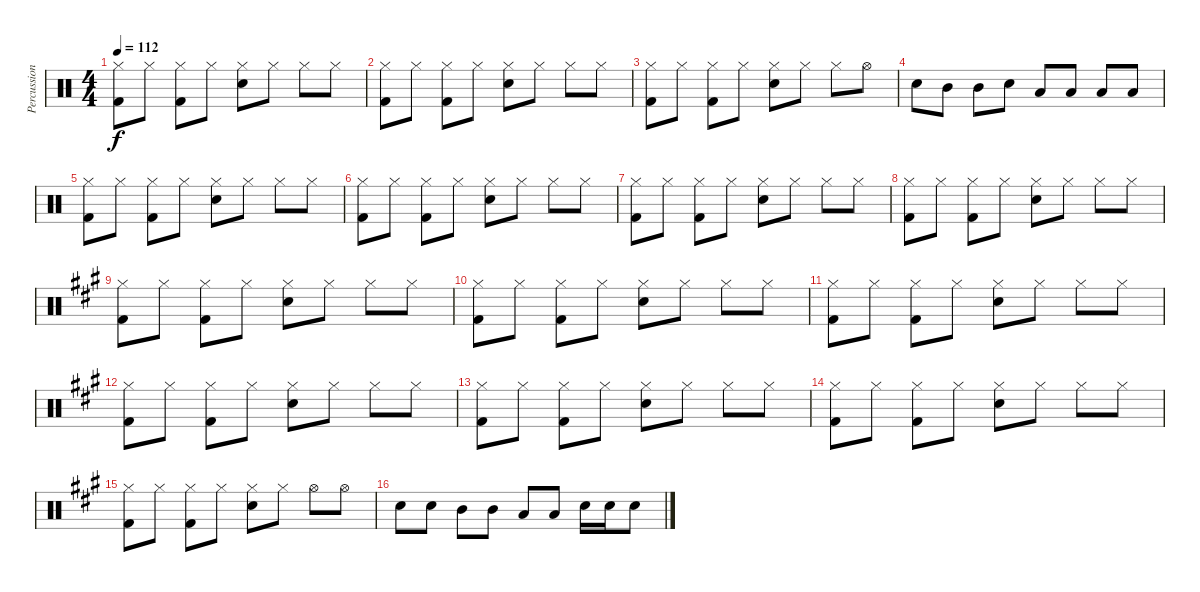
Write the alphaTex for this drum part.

\track ("Percussion" "Percussion") {instrument percussion}
\staff {score}
\articulation defaults
\ts (4 4)
\tempo 112
\clef neutral
\ks c
("Hi-Hat (closed)" "Kick (hit) 2").8{dy f} "Hi-Hat (closed)".8 ("Hi-Hat (closed)" "Kick (hit) 2").8 "Hi-Hat (closed)".8 ("Hi-Hat (closed)" "Snare (hit) 2").8 "Hi-Hat (closed)".8 "Hi-Hat (closed)".8 "Hi-Hat (closed)".8 |
("Hi-Hat (closed)" "Kick (hit) 2").8 "Hi-Hat (closed)".8 ("Hi-Hat (closed)" "Kick (hit) 2").8 "Hi-Hat (closed)".8 ("Hi-Hat (closed)" "Snare (hit) 2").8 "Hi-Hat (closed)".8 "Hi-Hat (closed)".8 "Hi-Hat (closed)".8 |
("Hi-Hat (closed)" "Kick (hit) 2").8 "Hi-Hat (closed)".8 ("Hi-Hat (closed)" "Kick (hit) 2").8 "Hi-Hat (closed)".8 ("Hi-Hat (closed)" "Snare (hit) 2").8 "Hi-Hat (closed)".8 "Hi-Hat (closed)".8 "Hi-Hat (open)".8 |
"Snare (hit) 2".8 "Mid Tom (hit)".8 "Mid Tom (hit)".8 "Snare (hit) 2".8 "Low Floor Tom (hit)".8 "Low Floor Tom (hit)".8 "Low Floor Tom (hit)".8 "Low Floor Tom (hit)".8 |
("Hi-Hat (closed)" "Kick (hit) 2").8 "Hi-Hat (closed)".8 ("Hi-Hat (closed)" "Kick (hit) 2").8 "Hi-Hat (closed)".8 ("Hi-Hat (closed)" "Snare (hit) 2").8 "Hi-Hat (closed)".8 "Hi-Hat (closed)".8 "Hi-Hat (closed)".8 |
("Hi-Hat (closed)" "Kick (hit) 2").8 "Hi-Hat (closed)".8 ("Hi-Hat (closed)" "Kick (hit) 2").8 "Hi-Hat (closed)".8 ("Hi-Hat (closed)" "Snare (hit) 2").8 "Hi-Hat (closed)".8 "Hi-Hat (closed)".8 "Hi-Hat (closed)".8 |
("Hi-Hat (closed)" "Kick (hit) 2").8 "Hi-Hat (closed)".8 ("Hi-Hat (closed)" "Kick (hit) 2").8 "Hi-Hat (closed)".8 ("Hi-Hat (closed)" "Snare (hit) 2").8 "Hi-Hat (closed)".8 "Hi-Hat (closed)".8 "Hi-Hat (closed)".8 |
("Hi-Hat (closed)" "Kick (hit) 2").8 "Hi-Hat (closed)".8 ("Hi-Hat (closed)" "Kick (hit) 2").8 "Hi-Hat (closed)".8 ("Hi-Hat (closed)" "Snare (hit) 2").8 "Hi-Hat (closed)".8 "Hi-Hat (closed)".8 "Hi-Hat (closed)".8 |
\ks a
("Hi-Hat (closed)" "Kick (hit) 2").8 "Hi-Hat (closed)".8 ("Hi-Hat (closed)" "Kick (hit) 2").8 "Hi-Hat (closed)".8 ("Hi-Hat (closed)" "Snare (hit) 2").8 "Hi-Hat (closed)".8 "Hi-Hat (closed)".8 "Hi-Hat (closed)".8 |
("Hi-Hat (closed)" "Kick (hit) 2").8 "Hi-Hat (closed)".8 ("Hi-Hat (closed)" "Kick (hit) 2").8 "Hi-Hat (closed)".8 ("Hi-Hat (closed)" "Snare (hit) 2").8 "Hi-Hat (closed)".8 "Hi-Hat (closed)".8 "Hi-Hat (closed)".8 |
("Hi-Hat (closed)" "Kick (hit) 2").8 "Hi-Hat (closed)".8 ("Hi-Hat (closed)" "Kick (hit) 2").8 "Hi-Hat (closed)".8 ("Hi-Hat (closed)" "Snare (hit) 2").8 "Hi-Hat (closed)".8 "Hi-Hat (closed)".8 "Hi-Hat (closed)".8 |
("Hi-Hat (closed)" "Kick (hit) 2").8 "Hi-Hat (closed)".8 ("Hi-Hat (closed)" "Kick (hit) 2").8 "Hi-Hat (closed)".8 ("Hi-Hat (closed)" "Snare (hit) 2").8 "Hi-Hat (closed)".8 "Hi-Hat (closed)".8 "Hi-Hat (closed)".8 |
("Hi-Hat (closed)" "Kick (hit) 2").8 "Hi-Hat (closed)".8 ("Hi-Hat (closed)" "Kick (hit) 2").8 "Hi-Hat (closed)".8 ("Hi-Hat (closed)" "Snare (hit) 2").8 "Hi-Hat (closed)".8 "Hi-Hat (closed)".8 "Hi-Hat (closed)".8 |
("Hi-Hat (closed)" "Kick (hit) 2").8 "Hi-Hat (closed)".8 ("Hi-Hat (closed)" "Kick (hit) 2").8 "Hi-Hat (closed)".8 ("Hi-Hat (closed)" "Snare (hit) 2").8 "Hi-Hat (closed)".8 "Hi-Hat (closed)".8 "Hi-Hat (closed)".8 |
("Hi-Hat (closed)" "Kick (hit) 2").8 "Hi-Hat (closed)".8 ("Hi-Hat (closed)" "Kick (hit) 2").8 "Hi-Hat (closed)".8 ("Hi-Hat (closed)" "Snare (hit) 2").8 "Hi-Hat (closed)".8 "Hi-Hat (open)".8 "Hi-Hat (open)".8 |
"Snare (hit) 2".8 "Snare (hit) 2".8 "Mid Tom (hit)".8 "Mid Tom (hit)".8 "Low Tom (hit)".8 "Low Tom (hit)".8 "Snare (hit) 2".16 "Snare (hit) 2".16 "Snare (hit) 2".8
